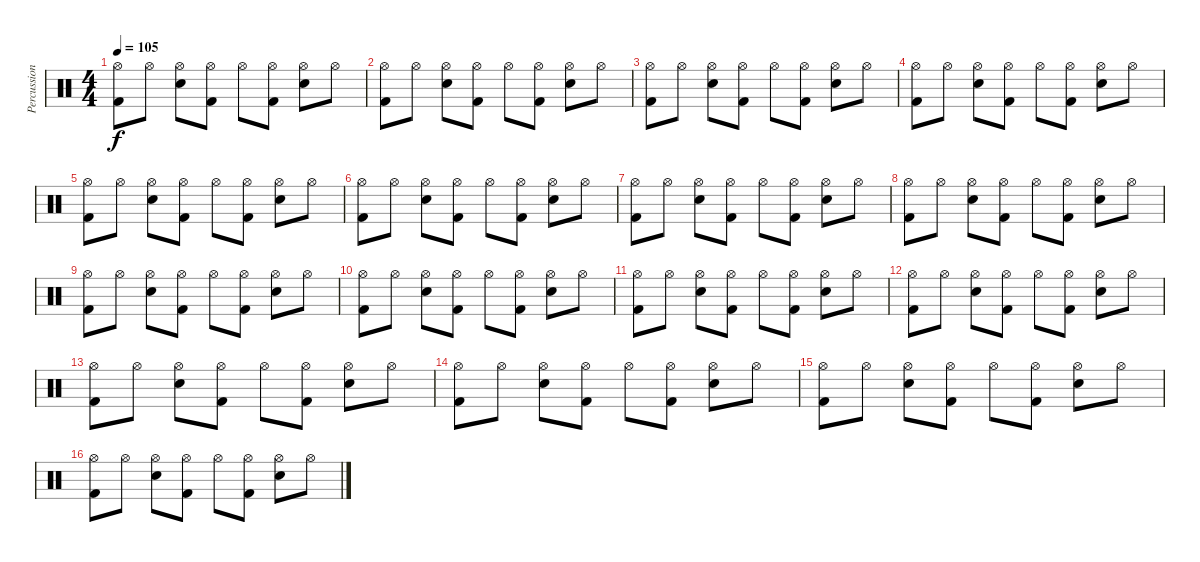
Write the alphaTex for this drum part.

\track ("Percussion" "Percussion") {instrument percussion}
\staff {score}
\articulation defaults
\ts (4 4)
\tempo 105
\clef neutral
\ks c
("Hi-Hat (open)" "Kick (hit) 2").8{dy f} "Hi-Hat (open)".8 ("Hi-Hat (open)" "Snare (hit) 2").8 ("Hi-Hat (open)" "Kick (hit) 2").8 "Hi-Hat (open)".8 ("Hi-Hat (open)" "Kick (hit) 2").8 ("Hi-Hat (open)" "Snare (hit) 2").8 "Hi-Hat (open)".8 |
("Hi-Hat (open)" "Kick (hit) 2").8 "Hi-Hat (open)".8 ("Hi-Hat (open)" "Snare (hit) 2").8 ("Hi-Hat (open)" "Kick (hit) 2").8 "Hi-Hat (open)".8 ("Hi-Hat (open)" "Kick (hit) 2").8 ("Hi-Hat (open)" "Snare (hit) 2").8 "Hi-Hat (open)".8 |
("Hi-Hat (open)" "Kick (hit) 2").8 "Hi-Hat (open)".8 ("Hi-Hat (open)" "Snare (hit) 2").8 ("Hi-Hat (open)" "Kick (hit) 2").8 "Hi-Hat (open)".8 ("Hi-Hat (open)" "Kick (hit) 2").8 ("Hi-Hat (open)" "Snare (hit) 2").8 "Hi-Hat (open)".8 |
("Hi-Hat (open)" "Kick (hit) 2").8 "Hi-Hat (open)".8 ("Hi-Hat (open)" "Snare (hit) 2").8 ("Hi-Hat (open)" "Kick (hit) 2").8 "Hi-Hat (open)".8 ("Hi-Hat (open)" "Kick (hit) 2").8 ("Hi-Hat (open)" "Snare (hit) 2").8 "Hi-Hat (open)".8 |
("Hi-Hat (open)" "Kick (hit) 2").8 "Hi-Hat (open)".8 ("Hi-Hat (open)" "Snare (hit) 2").8 ("Hi-Hat (open)" "Kick (hit) 2").8 "Hi-Hat (open)".8 ("Hi-Hat (open)" "Kick (hit) 2").8 ("Hi-Hat (open)" "Snare (hit) 2").8 "Hi-Hat (open)".8 |
("Hi-Hat (open)" "Kick (hit) 2").8 "Hi-Hat (open)".8 ("Hi-Hat (open)" "Snare (hit) 2").8 ("Hi-Hat (open)" "Kick (hit) 2").8 "Hi-Hat (open)".8 ("Hi-Hat (open)" "Kick (hit) 2").8 ("Hi-Hat (open)" "Snare (hit) 2").8 "Hi-Hat (open)".8 |
("Hi-Hat (open)" "Kick (hit) 2").8 "Hi-Hat (open)".8 ("Hi-Hat (open)" "Snare (hit) 2").8 ("Hi-Hat (open)" "Kick (hit) 2").8 "Hi-Hat (open)".8 ("Hi-Hat (open)" "Kick (hit) 2").8 ("Hi-Hat (open)" "Snare (hit) 2").8 "Hi-Hat (open)".8 |
("Hi-Hat (open)" "Kick (hit) 2").8 "Hi-Hat (open)".8 ("Hi-Hat (open)" "Snare (hit) 2").8 ("Hi-Hat (open)" "Kick (hit) 2").8 "Hi-Hat (open)".8 ("Hi-Hat (open)" "Kick (hit) 2").8 ("Hi-Hat (open)" "Snare (hit) 2").8 "Hi-Hat (open)".8 |
("Hi-Hat (open)" "Kick (hit) 2").8 "Hi-Hat (open)".8 ("Hi-Hat (open)" "Snare (hit) 2").8 ("Hi-Hat (open)" "Kick (hit) 2").8 "Hi-Hat (open)".8 ("Hi-Hat (open)" "Kick (hit) 2").8 ("Hi-Hat (open)" "Snare (hit) 2").8 "Hi-Hat (open)".8 |
("Hi-Hat (open)" "Kick (hit) 2").8 "Hi-Hat (open)".8 ("Hi-Hat (open)" "Snare (hit) 2").8 ("Hi-Hat (open)" "Kick (hit) 2").8 "Hi-Hat (open)".8 ("Hi-Hat (open)" "Kick (hit) 2").8 ("Hi-Hat (open)" "Snare (hit) 2").8 "Hi-Hat (open)".8 |
("Hi-Hat (open)" "Kick (hit) 2").8 "Hi-Hat (open)".8 ("Hi-Hat (open)" "Snare (hit) 2").8 ("Hi-Hat (open)" "Kick (hit) 2").8 "Hi-Hat (open)".8 ("Hi-Hat (open)" "Kick (hit) 2").8 ("Hi-Hat (open)" "Snare (hit) 2").8 "Hi-Hat (open)".8 |
("Hi-Hat (open)" "Kick (hit) 2").8 "Hi-Hat (open)".8 ("Hi-Hat (open)" "Snare (hit) 2").8 ("Hi-Hat (open)" "Kick (hit) 2").8 "Hi-Hat (open)".8 ("Hi-Hat (open)" "Kick (hit) 2").8 ("Hi-Hat (open)" "Snare (hit) 2").8 "Hi-Hat (open)".8 |
("Hi-Hat (open)" "Kick (hit) 2").8 "Hi-Hat (open)".8 ("Hi-Hat (open)" "Snare (hit) 2").8 ("Hi-Hat (open)" "Kick (hit) 2").8 "Hi-Hat (open)".8 ("Hi-Hat (open)" "Kick (hit) 2").8 ("Hi-Hat (open)" "Snare (hit) 2").8 "Hi-Hat (open)".8 |
("Hi-Hat (open)" "Kick (hit) 2").8 "Hi-Hat (open)".8 ("Hi-Hat (open)" "Snare (hit) 2").8 ("Hi-Hat (open)" "Kick (hit) 2").8 "Hi-Hat (open)".8 ("Hi-Hat (open)" "Kick (hit) 2").8 ("Hi-Hat (open)" "Snare (hit) 2").8 "Hi-Hat (open)".8 |
("Hi-Hat (open)" "Kick (hit) 2").8 "Hi-Hat (open)".8 ("Hi-Hat (open)" "Snare (hit) 2").8 ("Hi-Hat (open)" "Kick (hit) 2").8 "Hi-Hat (open)".8 ("Hi-Hat (open)" "Kick (hit) 2").8 ("Hi-Hat (open)" "Snare (hit) 2").8 "Hi-Hat (open)".8 |
("Hi-Hat (open)" "Kick (hit) 2").8 "Hi-Hat (open)".8 ("Hi-Hat (open)" "Snare (hit) 2").8 ("Hi-Hat (open)" "Kick (hit) 2").8 "Hi-Hat (open)".8 ("Hi-Hat (open)" "Kick (hit) 2").8 ("Hi-Hat (open)" "Snare (hit) 2").8 "Hi-Hat (open)".8
